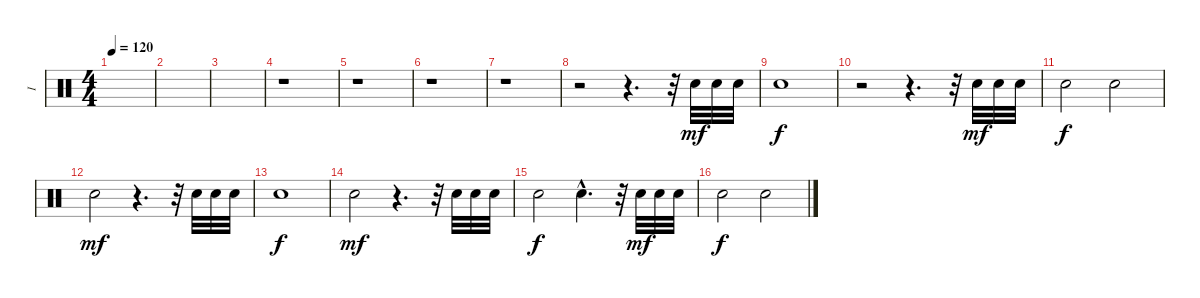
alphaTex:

\track ("I" "I") {instrument percussion}
\staff {score}
\articulation defaults
\ts (4 4)
\tempo 120
\clef neutral
\ks c
|
|
|
r.1 |
r.1 |
r.1 |
r.1 |
r.2 r.4{d} r.32 "Snare (hit) 2".32{dy mf} "Snare (hit) 2".32 "Snare (hit) 2".32 |
"Snare (hit) 2".1{dy f} |
r.2 r.4{d} r.32 "Snare (hit) 2".32{dy mf} "Snare (hit) 2".32 "Snare (hit) 2".32 |
"Snare (hit) 2".2{dy f} "Snare (hit) 2".2 |
"Snare (hit) 2".2{dy mf} r.4{d} r.32 "Snare (hit) 2".32 "Snare (hit) 2".32 "Snare (hit) 2".32 |
"Snare (hit) 2".1{dy f} |
"Snare (hit) 2".2{dy mf} r.4{d} r.32 "Snare (hit) 2".32 "Snare (hit) 2".32 "Snare (hit) 2".32 |
"Snare (hit) 2".2{dy f} "Snare (hit) 2"{hac}.4{d} r.32 "Snare (hit) 2".32{dy mf} "Snare (hit) 2".32 "Snare (hit) 2".32 |
"Snare (hit) 2".2{dy f} "Snare (hit) 2".2
